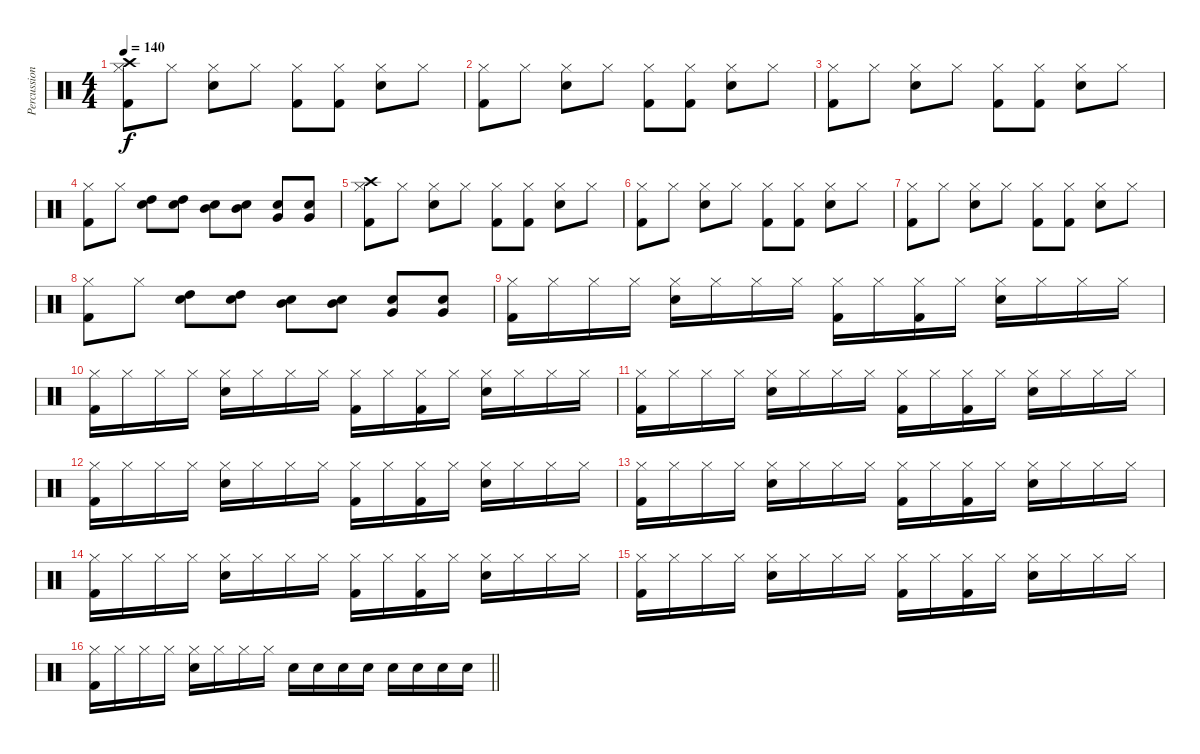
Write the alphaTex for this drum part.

\track ("Percussion" "Percussion") {instrument percussion}
\staff {score}
\articulation defaults
\ts (4 4)
\tempo 140
\clef neutral
\ks c
("Kick (hit) 2" "Hi-Hat (closed)" "Crash high (hit)").8{dy f} "Hi-Hat (closed)".8 ("Electric Snare (hit)" "Hi-Hat (closed)").8 "Hi-Hat (closed)".8 ("Kick (hit) 2" "Hi-Hat (closed)").8 ("Kick (hit) 2" "Hi-Hat (closed)").8 ("Electric Snare (hit)" "Hi-Hat (closed)").8 "Hi-Hat (closed)".8 |
("Kick (hit) 2" "Hi-Hat (closed)").8 "Hi-Hat (closed)".8 ("Electric Snare (hit)" "Hi-Hat (closed)").8 "Hi-Hat (closed)".8 ("Kick (hit) 2" "Hi-Hat (closed)").8 ("Kick (hit) 2" "Hi-Hat (closed)").8 ("Electric Snare (hit)" "Hi-Hat (closed)").8 "Hi-Hat (closed)".8 |
("Kick (hit) 2" "Hi-Hat (closed)").8 "Hi-Hat (closed)".8 ("Electric Snare (hit)" "Hi-Hat (closed)").8 "Hi-Hat (closed)".8 ("Kick (hit) 2" "Hi-Hat (closed)").8 ("Kick (hit) 2" "Hi-Hat (closed)").8 ("Electric Snare (hit)" "Hi-Hat (closed)").8 "Hi-Hat (closed)".8 |
("Kick (hit) 2" "Hi-Hat (closed)").8 "Hi-Hat (closed)".8 ("Electric Snare (hit)" "High Tom (hit)").8 ("Electric Snare (hit)" "High Tom (hit)").8 ("Electric Snare (hit)" "Mid Tom (hit)").8 ("Electric Snare (hit)" "Mid Tom (hit)").8 ("Electric Snare (hit)" "Very Low Tom (hit)").8 ("Electric Snare (hit)" "Very Low Tom (hit)").8 |
("Kick (hit) 2" "Hi-Hat (closed)" "Crash high (hit)").8 "Hi-Hat (closed)".8 ("Electric Snare (hit)" "Hi-Hat (closed)").8 "Hi-Hat (closed)".8 ("Kick (hit) 2" "Hi-Hat (closed)").8 ("Kick (hit) 2" "Hi-Hat (closed)").8 ("Electric Snare (hit)" "Hi-Hat (closed)").8 "Hi-Hat (closed)".8 |
("Kick (hit) 2" "Hi-Hat (closed)").8 "Hi-Hat (closed)".8 ("Electric Snare (hit)" "Hi-Hat (closed)").8 "Hi-Hat (closed)".8 ("Kick (hit) 2" "Hi-Hat (closed)").8 ("Kick (hit) 2" "Hi-Hat (closed)").8 ("Electric Snare (hit)" "Hi-Hat (closed)").8 "Hi-Hat (closed)".8 |
("Kick (hit) 2" "Hi-Hat (closed)").8 "Hi-Hat (closed)".8 ("Electric Snare (hit)" "Hi-Hat (closed)").8 "Hi-Hat (closed)".8 ("Kick (hit) 2" "Hi-Hat (closed)").8 ("Kick (hit) 2" "Hi-Hat (closed)").8 ("Electric Snare (hit)" "Hi-Hat (closed)").8 "Hi-Hat (closed)".8 |
("Kick (hit) 2" "Hi-Hat (closed)").8 "Hi-Hat (closed)".8 ("Electric Snare (hit)" "High Tom (hit)").8 ("Electric Snare (hit)" "High Tom (hit)").8 ("Electric Snare (hit)" "Mid Tom (hit)").8 ("Electric Snare (hit)" "Mid Tom (hit)").8 ("Electric Snare (hit)" "Very Low Tom (hit)").8 ("Electric Snare (hit)" "Very Low Tom (hit)").8 |
("Hi-Hat (closed)" "Kick (hit) 2").16 "Hi-Hat (closed)".16 "Hi-Hat (closed)".16 "Hi-Hat (closed)".16 ("Hi-Hat (closed)" "Electric Snare (hit)").16 "Hi-Hat (closed)".16 "Hi-Hat (closed)".16 "Hi-Hat (closed)".16 ("Hi-Hat (closed)" "Kick (hit) 2").16 "Hi-Hat (closed)".16 ("Hi-Hat (closed)" "Kick (hit) 2").16 "Hi-Hat (closed)".16 ("Hi-Hat (closed)" "Electric Snare (hit)").16 "Hi-Hat (closed)".16 "Hi-Hat (closed)".16 "Hi-Hat (closed)".16 |
("Hi-Hat (closed)" "Kick (hit) 2").16 "Hi-Hat (closed)".16 "Hi-Hat (closed)".16 "Hi-Hat (closed)".16 ("Hi-Hat (closed)" "Electric Snare (hit)").16 "Hi-Hat (closed)".16 "Hi-Hat (closed)".16 "Hi-Hat (closed)".16 ("Hi-Hat (closed)" "Kick (hit) 2").16 "Hi-Hat (closed)".16 ("Hi-Hat (closed)" "Kick (hit) 2").16 "Hi-Hat (closed)".16 ("Hi-Hat (closed)" "Electric Snare (hit)").16 "Hi-Hat (closed)".16 "Hi-Hat (closed)".16 "Hi-Hat (closed)".16 |
("Hi-Hat (closed)" "Kick (hit) 2").16 "Hi-Hat (closed)".16 "Hi-Hat (closed)".16 "Hi-Hat (closed)".16 ("Hi-Hat (closed)" "Electric Snare (hit)").16 "Hi-Hat (closed)".16 "Hi-Hat (closed)".16 "Hi-Hat (closed)".16 ("Hi-Hat (closed)" "Kick (hit) 2").16 "Hi-Hat (closed)".16 ("Hi-Hat (closed)" "Kick (hit) 2").16 "Hi-Hat (closed)".16 ("Hi-Hat (closed)" "Electric Snare (hit)").16 "Hi-Hat (closed)".16 "Hi-Hat (closed)".16 "Hi-Hat (closed)".16 |
("Hi-Hat (closed)" "Kick (hit) 2").16 "Hi-Hat (closed)".16 "Hi-Hat (closed)".16 "Hi-Hat (closed)".16 ("Hi-Hat (closed)" "Electric Snare (hit)").16 "Hi-Hat (closed)".16 "Hi-Hat (closed)".16 "Hi-Hat (closed)".16 ("Hi-Hat (closed)" "Kick (hit) 2").16 "Hi-Hat (closed)".16 ("Hi-Hat (closed)" "Kick (hit) 2").16 "Hi-Hat (closed)".16 ("Hi-Hat (closed)" "Electric Snare (hit)").16 "Hi-Hat (closed)".16 "Hi-Hat (closed)".16 "Hi-Hat (closed)".16 |
("Hi-Hat (closed)" "Kick (hit) 2").16 "Hi-Hat (closed)".16 "Hi-Hat (closed)".16 "Hi-Hat (closed)".16 ("Hi-Hat (closed)" "Electric Snare (hit)").16 "Hi-Hat (closed)".16 "Hi-Hat (closed)".16 "Hi-Hat (closed)".16 ("Hi-Hat (closed)" "Kick (hit) 2").16 "Hi-Hat (closed)".16 ("Hi-Hat (closed)" "Kick (hit) 2").16 "Hi-Hat (closed)".16 ("Hi-Hat (closed)" "Electric Snare (hit)").16 "Hi-Hat (closed)".16 "Hi-Hat (closed)".16 "Hi-Hat (closed)".16 |
("Hi-Hat (closed)" "Kick (hit) 2").16 "Hi-Hat (closed)".16 "Hi-Hat (closed)".16 "Hi-Hat (closed)".16 ("Hi-Hat (closed)" "Electric Snare (hit)").16 "Hi-Hat (closed)".16 "Hi-Hat (closed)".16 "Hi-Hat (closed)".16 ("Hi-Hat (closed)" "Kick (hit) 2").16 "Hi-Hat (closed)".16 ("Hi-Hat (closed)" "Kick (hit) 2").16 "Hi-Hat (closed)".16 ("Hi-Hat (closed)" "Electric Snare (hit)").16 "Hi-Hat (closed)".16 "Hi-Hat (closed)".16 "Hi-Hat (closed)".16 |
("Hi-Hat (closed)" "Kick (hit) 2").16 "Hi-Hat (closed)".16 "Hi-Hat (closed)".16 "Hi-Hat (closed)".16 ("Hi-Hat (closed)" "Electric Snare (hit)").16 "Hi-Hat (closed)".16 "Hi-Hat (closed)".16 "Hi-Hat (closed)".16 ("Hi-Hat (closed)" "Kick (hit) 2").16 "Hi-Hat (closed)".16 ("Hi-Hat (closed)" "Kick (hit) 2").16 "Hi-Hat (closed)".16 ("Hi-Hat (closed)" "Electric Snare (hit)").16 "Hi-Hat (closed)".16 "Hi-Hat (closed)".16 "Hi-Hat (closed)".16 |
\barLineRight lightlight
("Hi-Hat (closed)" "Kick (hit) 2").16 "Hi-Hat (closed)".16 "Hi-Hat (closed)".16 "Hi-Hat (closed)".16 ("Hi-Hat (closed)" "Electric Snare (hit)").16 "Hi-Hat (closed)".16 "Hi-Hat (closed)".16 "Hi-Hat (closed)".16 "Electric Snare (hit)".16 "Electric Snare (hit)".16 "Electric Snare (hit)".16 "Electric Snare (hit)".16 "Electric Snare (hit)".16 "Electric Snare (hit)".16 "Electric Snare (hit)".16 "Electric Snare (hit)".16
